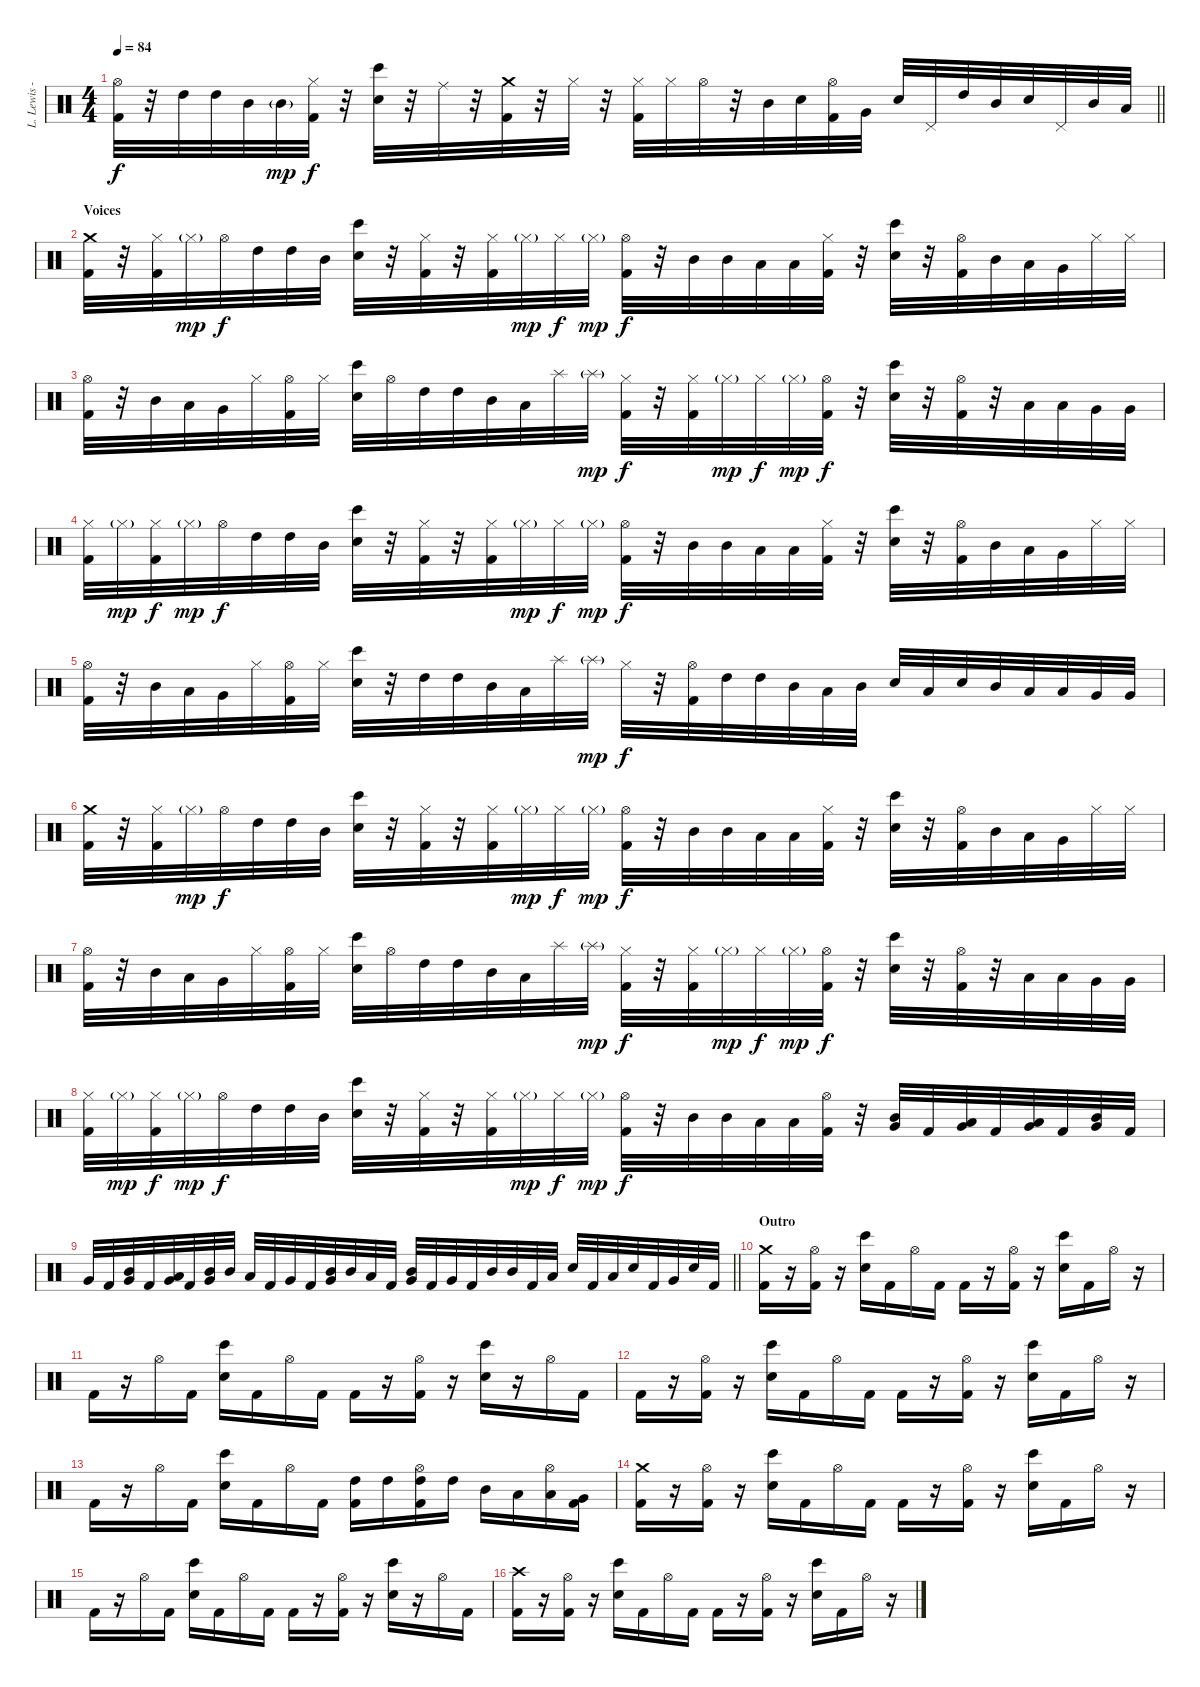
\track ("L. Lewis - Drums" "L. Lewis -") {instrument percussion}
\staff {score}
\articulation defaults
\ts (4 4)
\tempo 84
\clef neutral
\barLineRight lightlight
\ks c
("Hi-Hat (open)" "Kick (hit) 2").32{dy f} r.32 "High Tom (hit)".32 "High Tom (hit)".32 "Mid Tom (hit)".32 "Mid Tom (hit)"{g}.32{dy mp} ("Hi-Hat (closed)" "Kick (hit) 2").32{dy f} r.32 ("Electric Snare (hit)" "Bongo High (hit)").32 r.32 "Ride (middle)".32 r.32 ("Crash medium (hit)" "Kick (hit) 2").32 r.32 "Hi-Hat (closed)".32 r.32 ("Hi-Hat (closed)" "Kick (hit) 2").32 "Hi-Hat (closed)".32 "Hi-Hat (open)".32 r.32 "Mid Tom (hit)".32 "Electric Snare (hit)".32 ("Hi-Hat (open)" "Kick (hit) 2").32 "Very Low Tom (hit)".32 "Electric Snare (hit)".32 "Pedal Hi-Hat (hit)".32 "High Tom (hit)".32 "Mid Tom (hit)".32 "Electric Snare (hit)".32 "Pedal Hi-Hat (hit)".32 "Mid Tom (hit)".32 "Low Tom (hit)".32 |
\section ("" "Voices")
("Crash medium (hit)" "Kick (hit) 2").32 r.32 ("Hi-Hat (closed)" "Kick (hit) 2").32 "Hi-Hat (closed)"{g}.32{dy mp} "Hi-Hat (open)".32{dy f} "High Tom (hit)".32 "High Tom (hit)".32 "Mid Tom (hit)".32 ("Electric Snare (hit)" "Bongo High (hit)").32 r.32 ("Hi-Hat (closed)" "Kick (hit) 2").32 r.32 ("Hi-Hat (closed)" "Kick (hit) 2").32 "Hi-Hat (closed)"{g}.32{dy mp} "Hi-Hat (closed)".32{dy f} "Hi-Hat (closed)"{g}.32{dy mp} ("Hi-Hat (open)" "Kick (hit) 2").32{dy f} r.32 "Mid Tom (hit)".32 "Mid Tom (hit)".32 "Low Tom (hit)".32 "Low Tom (hit)".32 ("Hi-Hat (closed)" "Kick (hit) 2").32 r.32 ("Electric Snare (hit)" "Bongo High (hit)").32 r.32 ("Hi-Hat (open)" "Kick (hit) 2").32 "Mid Tom (hit)".32 "Low Tom (hit)".32 "Very Low Tom (hit)".32 "Hi-Hat (closed)".32 "Hi-Hat (closed)".32 |
("Hi-Hat (open)" "Kick (hit) 2").32 r.32 "Mid Tom (hit)".32 "Low Tom (hit)".32 "Very Low Tom (hit)".32 "Hi-Hat (closed)".32 ("Hi-Hat (open)" "Kick (hit) 2").32 "Hi-Hat (closed)".32 ("Electric Snare (hit)" "Bongo High (hit)").32 "Hi-Hat (open)".32 "High Tom (hit)".32 "High Tom (hit)".32 "Mid Tom (hit)".32 "Low Tom (hit)".32 "Splash (hit)".32 "Splash (hit)"{g}.32{dy mp} ("Hi-Hat (closed)" "Kick (hit) 2").32{dy f} r.32 ("Hi-Hat (closed)" "Kick (hit) 2").32 "Hi-Hat (closed)"{g}.32{dy mp} "Hi-Hat (closed)".32{dy f} "Hi-Hat (closed)"{g}.32{dy mp} ("Hi-Hat (open)" "Kick (hit) 2").32{dy f} r.32 ("Electric Snare (hit)" "Bongo High (hit)").32 r.32 ("Hi-Hat (open)" "Kick (hit) 2").32 r.32 "Low Tom (hit)".32 "Low Tom (hit)".32 "Very Low Tom (hit)".32 "Very Low Tom (hit)".32 |
("Hi-Hat (closed)" "Kick (hit) 2").32 "Hi-Hat (closed)"{g}.32{dy mp} ("Hi-Hat (closed)" "Kick (hit) 2").32{dy f} "Hi-Hat (closed)"{g}.32{dy mp} "Hi-Hat (open)".32{dy f} "High Tom (hit)".32 "High Tom (hit)".32 "Mid Tom (hit)".32 ("Electric Snare (hit)" "Bongo High (hit)").32 r.32 ("Hi-Hat (closed)" "Kick (hit) 2").32 r.32 ("Hi-Hat (closed)" "Kick (hit) 2").32 "Hi-Hat (closed)"{g}.32{dy mp} "Hi-Hat (closed)".32{dy f} "Hi-Hat (closed)"{g}.32{dy mp} ("Hi-Hat (open)" "Kick (hit) 2").32{dy f} r.32 "Mid Tom (hit)".32 "Mid Tom (hit)".32 "Low Tom (hit)".32 "Low Tom (hit)".32 ("Hi-Hat (closed)" "Kick (hit) 2").32 r.32 ("Electric Snare (hit)" "Bongo High (hit)").32 r.32 ("Hi-Hat (open)" "Kick (hit) 2").32 "Mid Tom (hit)".32 "Low Tom (hit)".32 "Very Low Tom (hit)".32 "Hi-Hat (closed)".32 "Hi-Hat (closed)".32 |
("Hi-Hat (open)" "Kick (hit) 2").32 r.32 "Mid Tom (hit)".32 "Low Tom (hit)".32 "Very Low Tom (hit)".32 "Hi-Hat (closed)".32 ("Hi-Hat (open)" "Kick (hit) 2").32 "Hi-Hat (closed)".32 ("Electric Snare (hit)" "Bongo High (hit)").32 r.32 "High Tom (hit)".32 "High Tom (hit)".32 "Mid Tom (hit)".32 "Low Tom (hit)".32 "Splash (hit)".32 "Splash (hit)"{g}.32{dy mp} "Hi-Hat (closed)".32{dy f} r.32 ("Hi-Hat (open)" "Kick (hit) 2").32 "High Tom (hit)".32 "High Tom (hit)".32 "Mid Tom (hit)".32 "Low Tom (hit)".32 "Mid Tom (hit)".32 "Electric Snare (hit)".32 "Low Tom (hit)".32 "Electric Snare (hit)".32 "Mid Tom (hit)".32 "Low Tom (hit)".32 "Low Tom (hit)".32 "Very Low Tom (hit)".32 "Very Low Tom (hit)".32 |
("Crash medium (hit)" "Kick (hit) 2").32 r.32 ("Hi-Hat (closed)" "Kick (hit) 2").32 "Hi-Hat (closed)"{g}.32{dy mp} "Hi-Hat (open)".32{dy f} "High Tom (hit)".32 "High Tom (hit)".32 "Mid Tom (hit)".32 ("Electric Snare (hit)" "Bongo High (hit)").32 r.32 ("Hi-Hat (closed)" "Kick (hit) 2").32 r.32 ("Hi-Hat (closed)" "Kick (hit) 2").32 "Hi-Hat (closed)"{g}.32{dy mp} "Hi-Hat (closed)".32{dy f} "Hi-Hat (closed)"{g}.32{dy mp} ("Hi-Hat (open)" "Kick (hit) 2").32{dy f} r.32 "Mid Tom (hit)".32 "Mid Tom (hit)".32 "Low Tom (hit)".32 "Low Tom (hit)".32 ("Hi-Hat (closed)" "Kick (hit) 2").32 r.32 ("Electric Snare (hit)" "Bongo High (hit)").32 r.32 ("Hi-Hat (open)" "Kick (hit) 2").32 "Mid Tom (hit)".32 "Low Tom (hit)".32 "Very Low Tom (hit)".32 "Hi-Hat (closed)".32 "Hi-Hat (closed)".32 |
("Hi-Hat (open)" "Kick (hit) 2").32 r.32 "Mid Tom (hit)".32 "Low Tom (hit)".32 "Very Low Tom (hit)".32 "Hi-Hat (closed)".32 ("Hi-Hat (open)" "Kick (hit) 2").32 "Hi-Hat (closed)".32 ("Electric Snare (hit)" "Bongo High (hit)").32 "Hi-Hat (open)".32 "High Tom (hit)".32 "High Tom (hit)".32 "Mid Tom (hit)".32 "Low Tom (hit)".32 "Splash (hit)".32 "Splash (hit)"{g}.32{dy mp} ("Hi-Hat (closed)" "Kick (hit) 2").32{dy f} r.32 ("Hi-Hat (closed)" "Kick (hit) 2").32 "Hi-Hat (closed)"{g}.32{dy mp} "Hi-Hat (closed)".32{dy f} "Hi-Hat (closed)"{g}.32{dy mp} ("Hi-Hat (open)" "Kick (hit) 2").32{dy f} r.32 ("Electric Snare (hit)" "Bongo High (hit)").32 r.32 ("Hi-Hat (open)" "Kick (hit) 2").32 r.32 "Low Tom (hit)".32 "Low Tom (hit)".32 "Very Low Tom (hit)".32 "Very Low Tom (hit)".32 |
("Hi-Hat (closed)" "Kick (hit) 2").32 "Hi-Hat (closed)"{g}.32{dy mp} ("Hi-Hat (closed)" "Kick (hit) 2").32{dy f} "Hi-Hat (closed)"{g}.32{dy mp} "Hi-Hat (open)".32{dy f} "High Tom (hit)".32 "High Tom (hit)".32 "Mid Tom (hit)".32 ("Electric Snare (hit)" "Bongo High (hit)").32 r.32 ("Hi-Hat (closed)" "Kick (hit) 2").32 r.32 ("Hi-Hat (closed)" "Kick (hit) 2").32 "Hi-Hat (closed)"{g}.32{dy mp} "Hi-Hat (closed)".32{dy f} "Hi-Hat (closed)"{g}.32{dy mp} ("Hi-Hat (open)" "Kick (hit) 2").32{dy f} r.32 "Mid Tom (hit)".32 "Mid Tom (hit)".32 "Low Tom (hit)".32 "Low Tom (hit)".32 ("Hi-Hat (open)" "Kick (hit) 2").32 r.32 ("Mid Tom (hit)" "Very Low Tom (hit)").32 "Kick (hit) 2".32 ("Low Tom (hit)" "Very Low Tom (hit)").32 "Kick (hit) 2".32 ("Low Tom (hit)" "Very Low Tom (hit)").32 "Kick (hit) 2".32 ("Mid Tom (hit)" "Very Low Tom (hit)").32 "Kick (hit) 2".32 |
\barLineRight lightlight "Very Low Tom (hit)".32 "Kick (hit) 2".32
("Mid Tom (hit)" "Very Low Tom (hit)").32 "Kick (hit) 2".32 ("Low Tom (hit)" "Very Low Tom (hit)").32 "Kick (hit) 2".32 ("Mid Tom (hit)" "Very Low Tom (hit)").32 "Mid Tom (hit)".32 "Low Tom (hit)".32 "Kick (hit) 2".32 "Very Low Tom (hit)".32 "Kick (hit) 2".32 ("Mid Tom (hit)" "Very Low Tom (hit)").32 "Mid Tom (hit)".32 "Low Tom (hit)".32 "Kick (hit) 2".32 ("Mid Tom (hit)" "Very Low Tom (hit)").32 "Kick (hit) 2".32 "Very Low Tom (hit)".32 "Kick (hit) 2".32 "Mid Tom (hit)".32 "Mid Tom (hit)".32 "Kick (hit) 2".32 "Low Tom (hit)".32 "Electric Snare (hit)".32 "Kick (hit) 2".32 "Low Tom (hit)".32 "Electric Snare (hit)".32 "Kick (hit) 2".32 "Very Low Tom (hit)".32 "Electric Snare (hit)".32 "Kick (hit) 2".32 |
\section ("" "Outro")
("Crash medium (hit)" "Kick (hit) 2").16 r.16 ("Hi-Hat (open)" "Kick (hit) 2").16 r.16 ("Electric Snare (hit)" "Bongo High (hit)").16 "Kick (hit) 2".16 "Hi-Hat (open)".16 "Kick (hit) 2".16 "Kick (hit) 2".16 r.16 ("Hi-Hat (open)" "Kick (hit) 2").16 r.16 ("Electric Snare (hit)" "Bongo High (hit)").16 "Kick (hit) 2".16 "Hi-Hat (open)".16 r.16 |
"Kick (hit) 2".16 r.16 "Hi-Hat (open)".16 "Kick (hit) 2".16 ("Electric Snare (hit)" "Bongo High (hit)").16 "Kick (hit) 2".16 "Hi-Hat (open)".16 "Kick (hit) 2".16 "Kick (hit) 2".16 r.16 ("Hi-Hat (open)" "Kick (hit) 2").16 r.16 ("Electric Snare (hit)" "Bongo High (hit)").16 r.16 "Hi-Hat (open)".16 "Kick (hit) 2".16 |
"Kick (hit) 2".16 r.16 ("Hi-Hat (open)" "Kick (hit) 2").16 r.16 ("Electric Snare (hit)" "Bongo High (hit)").16 "Kick (hit) 2".16 "Hi-Hat (open)".16 "Kick (hit) 2".16 "Kick (hit) 2".16 r.16 ("Hi-Hat (open)" "Kick (hit) 2").16 r.16 ("Electric Snare (hit)" "Bongo High (hit)").16 "Kick (hit) 2".16 "Hi-Hat (open)".16 r.16 |
"Kick (hit) 2".16 r.16 "Hi-Hat (open)".16 "Kick (hit) 2".16 ("Electric Snare (hit)" "Bongo High (hit)").16 "Kick (hit) 2".16 "Hi-Hat (open)".16 "Kick (hit) 2".16 ("High Tom (hit)" "Kick (hit) 2").16 "High Tom (hit)".16 ("Hi-Hat (open)" "High Tom (hit)" "Kick (hit) 2").16 "High Tom (hit)".16 "Mid Tom (hit)".16 "Low Tom (hit)".16 ("Hi-Hat (open)" "Low Tom (hit)").16 ("Very Low Tom (hit)" "Kick (hit) 2").16 |
("Crash medium (hit)" "Kick (hit) 2").16 r.16 ("Hi-Hat (open)" "Kick (hit) 2").16 r.16 ("Electric Snare (hit)" "Bongo High (hit)").16 "Kick (hit) 2".16 "Hi-Hat (open)".16 "Kick (hit) 2".16 "Kick (hit) 2".16 r.16 ("Hi-Hat (open)" "Kick (hit) 2").16 r.16 ("Electric Snare (hit)" "Bongo High (hit)").16 "Kick (hit) 2".16 "Hi-Hat (open)".16 r.16 |
"Kick (hit) 2".16 r.16 "Hi-Hat (open)".16 "Kick (hit) 2".16 ("Electric Snare (hit)" "Bongo High (hit)").16 "Kick (hit) 2".16 "Hi-Hat (open)".16 "Kick (hit) 2".16 "Kick (hit) 2".16 r.16 ("Hi-Hat (open)" "Kick (hit) 2").16 r.16 ("Electric Snare (hit)" "Bongo High (hit)").16 r.16 "Hi-Hat (open)".16 "Kick (hit) 2".16 |
("Crash high (hit)" "Kick (hit) 2").16 r.16 ("Hi-Hat (open)" "Kick (hit) 2").16 r.16 ("Electric Snare (hit)" "Bongo High (hit)").16 "Kick (hit) 2".16 "Hi-Hat (open)".16 "Kick (hit) 2".16 "Kick (hit) 2".16 r.16 ("Hi-Hat (open)" "Kick (hit) 2").16 r.16 ("Electric Snare (hit)" "Bongo High (hit)").16 "Kick (hit) 2".16 "Hi-Hat (open)".16 r.16
